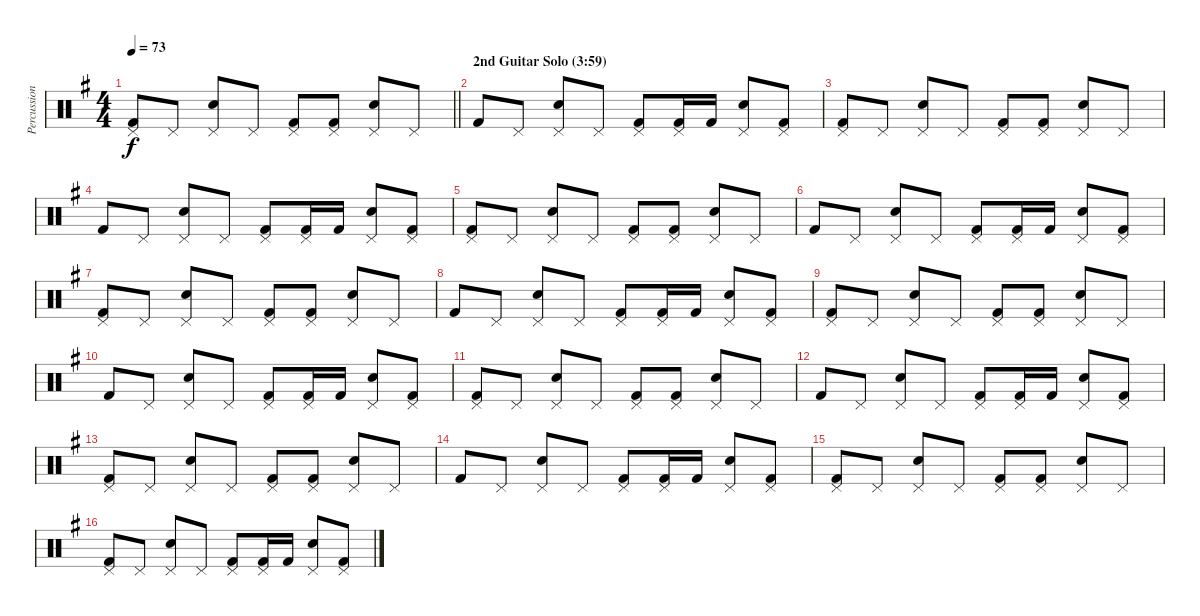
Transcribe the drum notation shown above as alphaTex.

\track ("Percussions" "Percussion") {instrument percussion}
\staff {score}
\articulation defaults
\ts (4 4)
\tempo 73
\clef neutral
\barLineRight lightlight
\ks g
("Pedal Hi-Hat (hit)" "Kick (hit) 2").8{dy f} "Pedal Hi-Hat (hit)".8 ("Pedal Hi-Hat (hit)" "Snare (hit) 2").8 "Pedal Hi-Hat (hit)".8 ("Pedal Hi-Hat (hit)" "Kick (hit) 2").8 ("Pedal Hi-Hat (hit)" "Kick (hit) 2").8 ("Pedal Hi-Hat (hit)" "Snare (hit) 2").8 "Pedal Hi-Hat (hit)".8 |
\section ("" "2nd Guitar Solo (3:59)")
"Kick (hit) 2".8 "Pedal Hi-Hat (hit)".8 ("Pedal Hi-Hat (hit)" "Snare (hit) 2").8 "Pedal Hi-Hat (hit)".8 ("Pedal Hi-Hat (hit)" "Kick (hit) 2").8 ("Pedal Hi-Hat (hit)" "Kick (hit) 2").16 "Kick (hit) 2".16 ("Pedal Hi-Hat (hit)" "Snare (hit) 2").8 ("Pedal Hi-Hat (hit)" "Kick (hit) 2").8 |
("Pedal Hi-Hat (hit)" "Kick (hit) 2").8 "Pedal Hi-Hat (hit)".8 ("Pedal Hi-Hat (hit)" "Snare (hit) 2").8 "Pedal Hi-Hat (hit)".8 ("Pedal Hi-Hat (hit)" "Kick (hit) 2").8 ("Pedal Hi-Hat (hit)" "Kick (hit) 2").8 ("Pedal Hi-Hat (hit)" "Snare (hit) 2").8 "Pedal Hi-Hat (hit)".8 |
"Kick (hit) 2".8 "Pedal Hi-Hat (hit)".8 ("Pedal Hi-Hat (hit)" "Snare (hit) 2").8 "Pedal Hi-Hat (hit)".8 ("Pedal Hi-Hat (hit)" "Kick (hit) 2").8 ("Pedal Hi-Hat (hit)" "Kick (hit) 2").16 "Kick (hit) 2".16 ("Pedal Hi-Hat (hit)" "Snare (hit) 2").8 ("Pedal Hi-Hat (hit)" "Kick (hit) 2").8 |
("Pedal Hi-Hat (hit)" "Kick (hit) 2").8 "Pedal Hi-Hat (hit)".8 ("Pedal Hi-Hat (hit)" "Snare (hit) 2").8 "Pedal Hi-Hat (hit)".8 ("Pedal Hi-Hat (hit)" "Kick (hit) 2").8 ("Pedal Hi-Hat (hit)" "Kick (hit) 2").8 ("Pedal Hi-Hat (hit)" "Snare (hit) 2").8 "Pedal Hi-Hat (hit)".8 |
"Kick (hit) 2".8 "Pedal Hi-Hat (hit)".8 ("Pedal Hi-Hat (hit)" "Snare (hit) 2").8 "Pedal Hi-Hat (hit)".8 ("Pedal Hi-Hat (hit)" "Kick (hit) 2").8 ("Pedal Hi-Hat (hit)" "Kick (hit) 2").16 "Kick (hit) 2".16 ("Pedal Hi-Hat (hit)" "Snare (hit) 2").8 ("Pedal Hi-Hat (hit)" "Kick (hit) 2").8 |
("Pedal Hi-Hat (hit)" "Kick (hit) 2").8 "Pedal Hi-Hat (hit)".8 ("Pedal Hi-Hat (hit)" "Snare (hit) 2").8 "Pedal Hi-Hat (hit)".8 ("Pedal Hi-Hat (hit)" "Kick (hit) 2").8 ("Pedal Hi-Hat (hit)" "Kick (hit) 2").8 ("Pedal Hi-Hat (hit)" "Snare (hit) 2").8 "Pedal Hi-Hat (hit)".8 |
"Kick (hit) 2".8 "Pedal Hi-Hat (hit)".8 ("Pedal Hi-Hat (hit)" "Snare (hit) 2").8 "Pedal Hi-Hat (hit)".8 ("Pedal Hi-Hat (hit)" "Kick (hit) 2").8 ("Pedal Hi-Hat (hit)" "Kick (hit) 2").16 "Kick (hit) 2".16 ("Pedal Hi-Hat (hit)" "Snare (hit) 2").8 ("Pedal Hi-Hat (hit)" "Kick (hit) 2").8 |
("Pedal Hi-Hat (hit)" "Kick (hit) 2").8 "Pedal Hi-Hat (hit)".8 ("Pedal Hi-Hat (hit)" "Snare (hit) 2").8 "Pedal Hi-Hat (hit)".8 ("Pedal Hi-Hat (hit)" "Kick (hit) 2").8 ("Pedal Hi-Hat (hit)" "Kick (hit) 2").8 ("Pedal Hi-Hat (hit)" "Snare (hit) 2").8 "Pedal Hi-Hat (hit)".8 |
"Kick (hit) 2".8 "Pedal Hi-Hat (hit)".8 ("Pedal Hi-Hat (hit)" "Snare (hit) 2").8 "Pedal Hi-Hat (hit)".8 ("Pedal Hi-Hat (hit)" "Kick (hit) 2").8 ("Pedal Hi-Hat (hit)" "Kick (hit) 2").16 "Kick (hit) 2".16 ("Pedal Hi-Hat (hit)" "Snare (hit) 2").8 ("Pedal Hi-Hat (hit)" "Kick (hit) 2").8 |
("Pedal Hi-Hat (hit)" "Kick (hit) 2").8 "Pedal Hi-Hat (hit)".8 ("Pedal Hi-Hat (hit)" "Snare (hit) 2").8 "Pedal Hi-Hat (hit)".8 ("Pedal Hi-Hat (hit)" "Kick (hit) 2").8 ("Pedal Hi-Hat (hit)" "Kick (hit) 2").8 ("Pedal Hi-Hat (hit)" "Snare (hit) 2").8 "Pedal Hi-Hat (hit)".8 |
"Kick (hit) 2".8 "Pedal Hi-Hat (hit)".8 ("Pedal Hi-Hat (hit)" "Snare (hit) 2").8 "Pedal Hi-Hat (hit)".8 ("Pedal Hi-Hat (hit)" "Kick (hit) 2").8 ("Pedal Hi-Hat (hit)" "Kick (hit) 2").16 "Kick (hit) 2".16 ("Pedal Hi-Hat (hit)" "Snare (hit) 2").8 ("Pedal Hi-Hat (hit)" "Kick (hit) 2").8 |
("Pedal Hi-Hat (hit)" "Kick (hit) 2").8 "Pedal Hi-Hat (hit)".8 ("Pedal Hi-Hat (hit)" "Snare (hit) 2").8 "Pedal Hi-Hat (hit)".8 ("Pedal Hi-Hat (hit)" "Kick (hit) 2").8 ("Pedal Hi-Hat (hit)" "Kick (hit) 2").8 ("Pedal Hi-Hat (hit)" "Snare (hit) 2").8 "Pedal Hi-Hat (hit)".8 |
"Kick (hit) 2".8 "Pedal Hi-Hat (hit)".8 ("Pedal Hi-Hat (hit)" "Snare (hit) 2").8 "Pedal Hi-Hat (hit)".8 ("Pedal Hi-Hat (hit)" "Kick (hit) 2").8 ("Pedal Hi-Hat (hit)" "Kick (hit) 2").16 "Kick (hit) 2".16 ("Pedal Hi-Hat (hit)" "Snare (hit) 2").8 ("Pedal Hi-Hat (hit)" "Kick (hit) 2").8 |
("Pedal Hi-Hat (hit)" "Kick (hit) 2").8 "Pedal Hi-Hat (hit)".8 ("Pedal Hi-Hat (hit)" "Snare (hit) 2").8 "Pedal Hi-Hat (hit)".8 ("Pedal Hi-Hat (hit)" "Kick (hit) 2").8 ("Pedal Hi-Hat (hit)" "Kick (hit) 2").8 ("Pedal Hi-Hat (hit)" "Snare (hit) 2").8 "Pedal Hi-Hat (hit)".8 |
("Pedal Hi-Hat (hit)" "Kick (hit) 2").8 "Pedal Hi-Hat (hit)".8 ("Pedal Hi-Hat (hit)" "Snare (hit) 2").8 "Pedal Hi-Hat (hit)".8 ("Pedal Hi-Hat (hit)" "Kick (hit) 2").8 ("Pedal Hi-Hat (hit)" "Kick (hit) 2").16 "Kick (hit) 2".16 ("Pedal Hi-Hat (hit)" "Snare (hit) 2").8 ("Pedal Hi-Hat (hit)" "Kick (hit) 2").8
